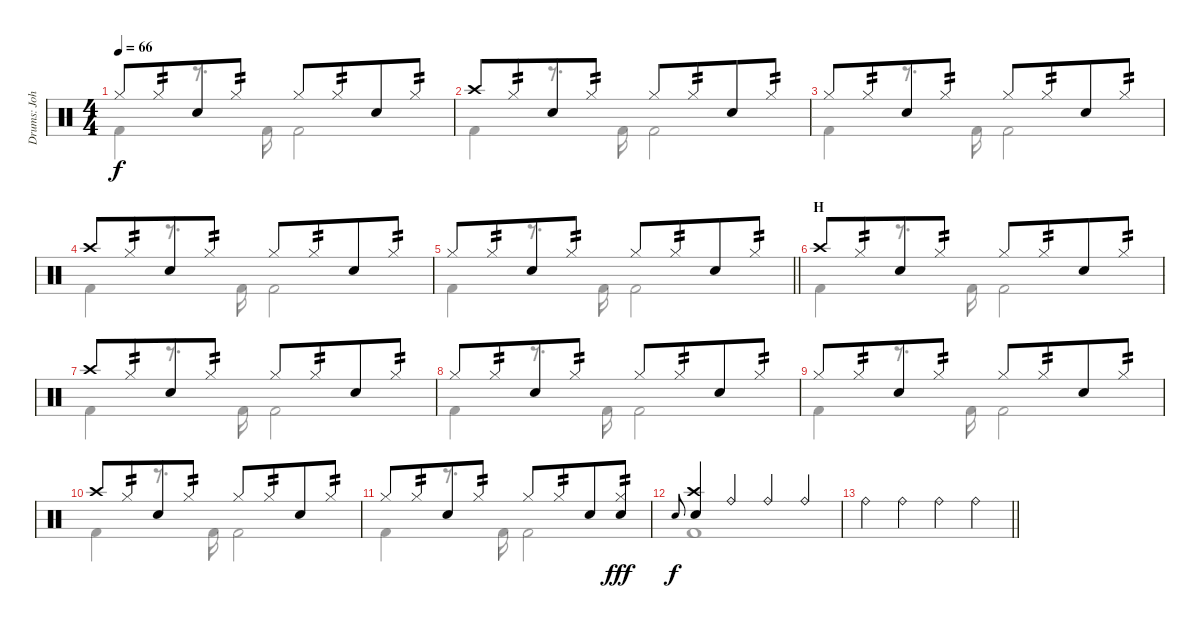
\track ("Drums: John" "Drums: Joh") {instrument percussion}
\staff {score}
\articulation defaults
\voice
\ts (4 4)
\tempo 66
\clef neutral
\ks c "Hi-Hat (closed)".8{dy f} "Hi-Hat (closed)".8{tp 2 beam merge} "Electric Snare (hit)".8 "Hi-Hat (closed)".8{tp 2} "Hi-Hat (closed)".8 "Hi-Hat (closed)".8{tp 2 beam merge} "Electric Snare (hit)".8 "Hi-Hat (closed)".8{tp 2}
|
"Crash high (hit)".8 "Hi-Hat (closed)".8{tp 2 beam merge} "Electric Snare (hit)".8 "Hi-Hat (closed)".8{tp 2} "Hi-Hat (closed)".8 "Hi-Hat (closed)".8{tp 2 beam merge} "Electric Snare (hit)".8 "Hi-Hat (closed)".8{tp 2} |
"Hi-Hat (closed)".8 "Hi-Hat (closed)".8{tp 2 beam merge} "Electric Snare (hit)".8 "Hi-Hat (closed)".8{tp 2} "Hi-Hat (closed)".8 "Hi-Hat (closed)".8{tp 2 beam merge} "Electric Snare (hit)".8 "Hi-Hat (closed)".8{tp 2} |
"Crash high (hit)".8 "Hi-Hat (closed)".8{tp 2 beam merge} "Electric Snare (hit)".8 "Hi-Hat (closed)".8{tp 2} "Hi-Hat (closed)".8 "Hi-Hat (closed)".8{tp 2 beam merge} "Electric Snare (hit)".8 "Hi-Hat (closed)".8{tp 2} |
\barLineRight lightlight "Hi-Hat (closed)".8 "Hi-Hat (closed)".8{tp 2 beam merge} "Electric Snare (hit)".8 "Hi-Hat (closed)".8{tp 2} "Hi-Hat (closed)".8 "Hi-Hat (closed)".8{tp 2 beam merge} "Electric Snare (hit)".8 "Hi-Hat (closed)".8{tp 2}
|
\section ("" "H")
"Crash high (hit)".8 "Hi-Hat (closed)".8{tp 2 beam merge} "Electric Snare (hit)".8 "Hi-Hat (closed)".8{tp 2} "Hi-Hat (closed)".8 "Hi-Hat (closed)".8{tp 2 beam merge} "Electric Snare (hit)".8 "Hi-Hat (closed)".8{tp 2} |
"Crash high (hit)".8 "Hi-Hat (closed)".8{tp 2 beam merge} "Electric Snare (hit)".8 "Hi-Hat (closed)".8{tp 2} "Hi-Hat (closed)".8 "Hi-Hat (closed)".8{tp 2 beam merge} "Electric Snare (hit)".8 "Hi-Hat (closed)".8{tp 2} |
"Hi-Hat (closed)".8 "Hi-Hat (closed)".8{tp 2 beam merge} "Electric Snare (hit)".8 "Hi-Hat (closed)".8{tp 2} "Hi-Hat (closed)".8 "Hi-Hat (closed)".8{tp 2 beam merge} "Electric Snare (hit)".8 "Hi-Hat (closed)".8{tp 2} |
"Hi-Hat (closed)".8 "Hi-Hat (closed)".8{tp 2 beam merge} "Electric Snare (hit)".8 "Hi-Hat (closed)".8{tp 2} "Hi-Hat (closed)".8 "Hi-Hat (closed)".8{tp 2 beam merge} "Electric Snare (hit)".8 "Hi-Hat (closed)".8{tp 2} |
"Crash high (hit)".8 "Hi-Hat (closed)".8{tp 2 beam merge} "Electric Snare (hit)".8 "Hi-Hat (closed)".8{tp 2} "Hi-Hat (closed)".8 "Hi-Hat (closed)".8{tp 2 beam merge} "Electric Snare (hit)".8 "Hi-Hat (closed)".8{tp 2} |
"Hi-Hat (closed)".8 "Hi-Hat (closed)".8{tp 2 beam merge} "Electric Snare (hit)".8 "Hi-Hat (closed)".8{tp 2} "Hi-Hat (closed)".8 "Hi-Hat (closed)".8{tp 2 beam merge} "Electric Snare (hit)".8 ("Hi-Hat (closed)" "Electric Snare (hit)").8{tp 2 dy fff} |
"Electric Snare (hit)".8{gr onbeat dy f} ("Crash high (hit)" "Snare (hit) 2").4 "Ride (bell)".4{beam merge} "Ride (bell)".4 "Ride (bell)".4 |
\barLineRight lightlight "Ride (bell)".4 "Ride (bell)".4{beam merge} "Ride (bell)".4 "Ride (bell)".4
\voice
\clef neutral
\ottava regular
\simile none
\ks c "Kick (hit) 2".4{dy f}
r.8{d} "Kick (hit) 2".16 "Kick (hit) 2".2 |
"Kick (hit) 2".4 r.8{d} "Kick (hit) 2".16 "Kick (hit) 2".2 |
"Kick (hit) 2".4 r.8{d} "Kick (hit) 2".16 "Kick (hit) 2".2 |
"Kick (hit) 2".4 r.8{d} "Kick (hit) 2".16 "Kick (hit) 2".2 |
\barLineRight lightlight "Kick (hit) 2".4
r.8{d} "Kick (hit) 2".16 "Kick (hit) 2".2 |
"Kick (hit) 2".4 r.8{d} "Kick (hit) 2".16 "Kick (hit) 2".2 |
"Kick (hit) 2".4 r.8{d} "Kick (hit) 2".16 "Kick (hit) 2".2 |
"Kick (hit) 2".4 r.8{d} "Kick (hit) 2".16 "Kick (hit) 2".2 |
"Kick (hit) 2".4 r.8{d} "Kick (hit) 2".16 "Kick (hit) 2".2 |
"Kick (hit) 2".4 r.8{d} "Kick (hit) 2".16 "Kick (hit) 2".2 |
"Kick (hit) 2".4 r.8{d} "Kick (hit) 2".16 "Kick (hit) 2".2 |
"Kick (hit) 2".1 |
\barLineRight lightlight
